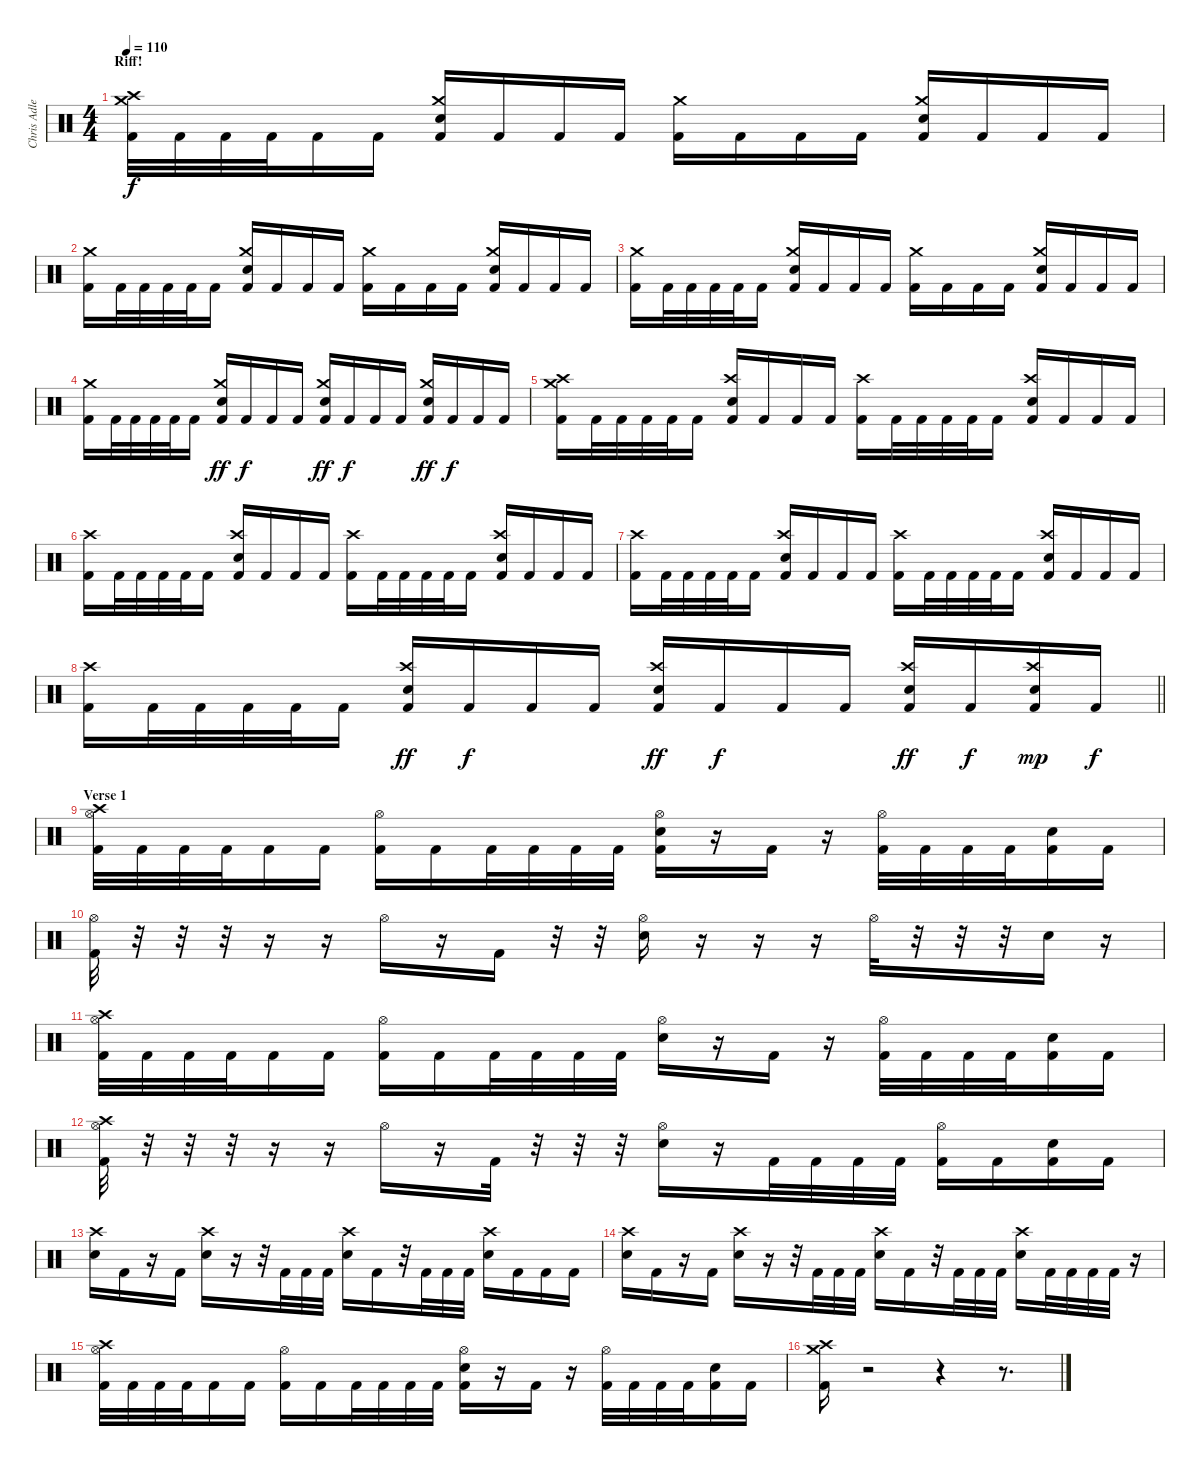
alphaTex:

\track ("Chris Adler" "Chris Adle") {instrument percussion}
\staff {score}
\articulation defaults
\ts (4 4)
\section ("" "Riff!")
\tempo 110
\clef neutral
\ks c
("Kick (hit) 2" "Crash high (hit)" "Crash medium (hit)").32{dy f} "Kick (hit) 2".32 "Kick (hit) 2".32 "Kick (hit) 2".32 "Kick (hit) 2".16 "Kick (hit) 2".16 ("Kick (hit) 2" "Electric Snare (hit)" "Crash medium (hit)").16 "Kick (hit) 2".16 "Kick (hit) 2".16 "Kick (hit) 2".16 ("Kick (hit) 2" "Crash medium (hit)").16 "Kick (hit) 2".16 "Kick (hit) 2".16 "Kick (hit) 2".16 ("Kick (hit) 2" "Electric Snare (hit)" "Crash medium (hit)").16 "Kick (hit) 2".16 "Kick (hit) 2".16 "Kick (hit) 2".16 |
("Kick (hit) 2" "Crash medium (hit)").16 "Kick (hit) 2".32 "Kick (hit) 2".32 "Kick (hit) 2".32 "Kick (hit) 2".32 "Kick (hit) 2".16 ("Kick (hit) 2" "Electric Snare (hit)" "Crash medium (hit)").16 "Kick (hit) 2".16 "Kick (hit) 2".16 "Kick (hit) 2".16 ("Kick (hit) 2" "Crash medium (hit)").16 "Kick (hit) 2".16 "Kick (hit) 2".16 "Kick (hit) 2".16 ("Kick (hit) 2" "Electric Snare (hit)" "Crash medium (hit)").16 "Kick (hit) 2".16 "Kick (hit) 2".16 "Kick (hit) 2".16 |
("Kick (hit) 2" "Crash medium (hit)").16 "Kick (hit) 2".32 "Kick (hit) 2".32 "Kick (hit) 2".32 "Kick (hit) 2".32 "Kick (hit) 2".16 ("Kick (hit) 2" "Electric Snare (hit)" "Crash medium (hit)").16 "Kick (hit) 2".16 "Kick (hit) 2".16 "Kick (hit) 2".16 ("Kick (hit) 2" "Crash medium (hit)").16 "Kick (hit) 2".16 "Kick (hit) 2".16 "Kick (hit) 2".16 ("Kick (hit) 2" "Electric Snare (hit)" "Crash medium (hit)").16 "Kick (hit) 2".16 "Kick (hit) 2".16 "Kick (hit) 2".16 |
("Kick (hit) 2" "Crash medium (hit)").16 "Kick (hit) 2".32 "Kick (hit) 2".32 "Kick (hit) 2".32 "Kick (hit) 2".32 "Kick (hit) 2".16 ("Kick (hit) 2" "Electric Snare (hit)" "Crash medium (hit)").16{dy ff} "Kick (hit) 2".16{dy f} "Kick (hit) 2".16 "Kick (hit) 2".16 ("Kick (hit) 2" "Electric Snare (hit)" "Crash medium (hit)").16{dy ff} "Kick (hit) 2".16{dy f} "Kick (hit) 2".16 "Kick (hit) 2".16 ("Kick (hit) 2" "Electric Snare (hit)" "Crash medium (hit)").16{dy ff} "Kick (hit) 2".16{dy f} "Kick (hit) 2".16 "Kick (hit) 2".16 |
("Kick (hit) 2" "Crash medium (hit)" "Crash high (hit)").16 "Kick (hit) 2".32 "Kick (hit) 2".32 "Kick (hit) 2".32 "Kick (hit) 2".32 "Kick (hit) 2".16 ("Kick (hit) 2" "Electric Snare (hit)" "Crash high (hit)").16 "Kick (hit) 2".16 "Kick (hit) 2".16 "Kick (hit) 2".16 ("Kick (hit) 2" "Crash high (hit)").16 "Kick (hit) 2".32 "Kick (hit) 2".32 "Kick (hit) 2".32 "Kick (hit) 2".32 "Kick (hit) 2".16 ("Kick (hit) 2" "Electric Snare (hit)" "Crash high (hit)").16 "Kick (hit) 2".16 "Kick (hit) 2".16 "Kick (hit) 2".16 |
("Kick (hit) 2" "Crash high (hit)").16 "Kick (hit) 2".32 "Kick (hit) 2".32 "Kick (hit) 2".32 "Kick (hit) 2".32 "Kick (hit) 2".16 ("Kick (hit) 2" "Electric Snare (hit)" "Crash high (hit)").16 "Kick (hit) 2".16 "Kick (hit) 2".16 "Kick (hit) 2".16 ("Kick (hit) 2" "Crash high (hit)").16 "Kick (hit) 2".32 "Kick (hit) 2".32 "Kick (hit) 2".32 "Kick (hit) 2".32 "Kick (hit) 2".16 ("Kick (hit) 2" "Electric Snare (hit)" "Crash high (hit)").16 "Kick (hit) 2".16 "Kick (hit) 2".16 "Kick (hit) 2".16 |
("Kick (hit) 2" "Crash high (hit)").16 "Kick (hit) 2".32 "Kick (hit) 2".32 "Kick (hit) 2".32 "Kick (hit) 2".32 "Kick (hit) 2".16 ("Kick (hit) 2" "Electric Snare (hit)" "Crash high (hit)").16 "Kick (hit) 2".16 "Kick (hit) 2".16 "Kick (hit) 2".16 ("Kick (hit) 2" "Crash high (hit)").16 "Kick (hit) 2".32 "Kick (hit) 2".32 "Kick (hit) 2".32 "Kick (hit) 2".32 "Kick (hit) 2".16 ("Kick (hit) 2" "Electric Snare (hit)" "Crash high (hit)").16 "Kick (hit) 2".16 "Kick (hit) 2".16 "Kick (hit) 2".16 |
\barLineRight lightlight
("Kick (hit) 2" "Crash high (hit)").16 "Kick (hit) 2".32 "Kick (hit) 2".32 "Kick (hit) 2".32 "Kick (hit) 2".32 "Kick (hit) 2".16 ("Kick (hit) 2" "Electric Snare (hit)" "Crash high (hit)").16{dy ff} "Kick (hit) 2".16{dy f} "Kick (hit) 2".16 "Kick (hit) 2".16 ("Kick (hit) 2" "Electric Snare (hit)" "Crash high (hit)").16{dy ff} "Kick (hit) 2".16{dy f} "Kick (hit) 2".16 "Kick (hit) 2".16 ("Kick (hit) 2" "Electric Snare (hit)" "Crash high (hit)").16{dy ff} "Kick (hit) 2".16{dy f} ("Kick (hit) 2" "Electric Snare (hit)" "Crash high (hit)").16{dy mp} "Kick (hit) 2".16{dy f} |
\section ("" "Verse 1")
("Kick (hit) 2" "Crash high (hit)" "Hi-Hat (open)").32 "Kick (hit) 2".32 "Kick (hit) 2".32 "Kick (hit) 2".32 "Kick (hit) 2".16 "Kick (hit) 2".16 ("Kick (hit) 2" "Hi-Hat (open)").16 "Kick (hit) 2".16 "Kick (hit) 2".32 "Kick (hit) 2".32 "Kick (hit) 2".32 "Kick (hit) 2".32 ("Kick (hit) 2" "Electric Snare (hit)" "Hi-Hat (open)").16 r.16 "Kick (hit) 2".16 r.16 ("Kick (hit) 2" "Hi-Hat (open)").32 "Kick (hit) 2".32 "Kick (hit) 2".32 "Kick (hit) 2".32 ("Kick (hit) 2" "Electric Snare (hit)").16 "Kick (hit) 2".16 |
("Kick (hit) 2" "Hi-Hat (open)").32 r.32 r.32 r.32 r.16 r.16 "Hi-Hat (open)".16 r.16 "Kick (hit) 2".16 r.32 r.32 ("Electric Snare (hit)" "Hi-Hat (open)").16 r.16 r.16 r.16 "Hi-Hat (open)".32 r.32 r.32 r.32 "Electric Snare (hit)".16 r.16 |
("Kick (hit) 2" "Crash high (hit)" "Hi-Hat (open)").32 "Kick (hit) 2".32 "Kick (hit) 2".32 "Kick (hit) 2".32 "Kick (hit) 2".16 "Kick (hit) 2".16 ("Kick (hit) 2" "Hi-Hat (open)").16 "Kick (hit) 2".16 "Kick (hit) 2".32 "Kick (hit) 2".32 "Kick (hit) 2".32 "Kick (hit) 2".32 ("Electric Snare (hit)" "Hi-Hat (open)").16 r.16 "Kick (hit) 2".16 r.16 ("Kick (hit) 2" "Hi-Hat (open)").32 "Kick (hit) 2".32 "Kick (hit) 2".32 "Kick (hit) 2".32 ("Kick (hit) 2" "Electric Snare (hit)").16 "Kick (hit) 2".16 |
("Kick (hit) 2" "Crash high (hit)" "Hi-Hat (open)").32 r.32 r.32 r.32 r.16 r.16 "Hi-Hat (open)".16 r.16 "Kick (hit) 2".32 r.32 r.32 r.32 ("Electric Snare (hit)" "Hi-Hat (open)").16 r.16 "Kick (hit) 2".32 "Kick (hit) 2".32 "Kick (hit) 2".32 "Kick (hit) 2".32 ("Kick (hit) 2" "Hi-Hat (open)").16 "Kick (hit) 2".16 ("Kick (hit) 2" "Electric Snare (hit)").16 "Kick (hit) 2".16 |
("Electric Snare (hit)" "Crash high (hit)").16 "Kick (hit) 2".16 r.16 "Kick (hit) 2".16 ("Electric Snare (hit)" "Crash high (hit)").16 r.16 r.32 "Kick (hit) 2".32 "Kick (hit) 2".32 "Kick (hit) 2".32 ("Electric Snare (hit)" "Crash high (hit)").16 "Kick (hit) 2".16 r.32 "Kick (hit) 2".32 "Kick (hit) 2".32 "Kick (hit) 2".32 ("Electric Snare (hit)" "Crash high (hit)").16 "Kick (hit) 2".16 "Kick (hit) 2".16 "Kick (hit) 2".16 |
("Electric Snare (hit)" "Crash high (hit)").16 "Kick (hit) 2".16 r.16 "Kick (hit) 2".16 ("Electric Snare (hit)" "Crash high (hit)").16 r.16 r.32 "Kick (hit) 2".32 "Kick (hit) 2".32 "Kick (hit) 2".32 ("Electric Snare (hit)" "Crash high (hit)").16 "Kick (hit) 2".16 r.32 "Kick (hit) 2".32 "Kick (hit) 2".32 "Kick (hit) 2".32 ("Electric Snare (hit)" "Crash high (hit)").16 "Kick (hit) 2".32 "Kick (hit) 2".32 "Kick (hit) 2".32 "Kick (hit) 2".32 r.16 |
("Kick (hit) 2" "Crash high (hit)" "Hi-Hat (open)").32 "Kick (hit) 2".32 "Kick (hit) 2".32 "Kick (hit) 2".32 "Kick (hit) 2".16 "Kick (hit) 2".16 ("Kick (hit) 2" "Hi-Hat (open)").16 "Kick (hit) 2".16 "Kick (hit) 2".32 "Kick (hit) 2".32 "Kick (hit) 2".32 "Kick (hit) 2".32 ("Kick (hit) 2" "Electric Snare (hit)" "Hi-Hat (open)").16 r.16 "Kick (hit) 2".16 r.16 ("Kick (hit) 2" "Hi-Hat (open)").32 "Kick (hit) 2".32 "Kick (hit) 2".32 "Kick (hit) 2".32 ("Kick (hit) 2" "Electric Snare (hit)").16 "Kick (hit) 2".16 |
("Kick (hit) 2" "Crash medium (hit)" "Crash high (hit)").16 r.2 r.4 r.8{d}
